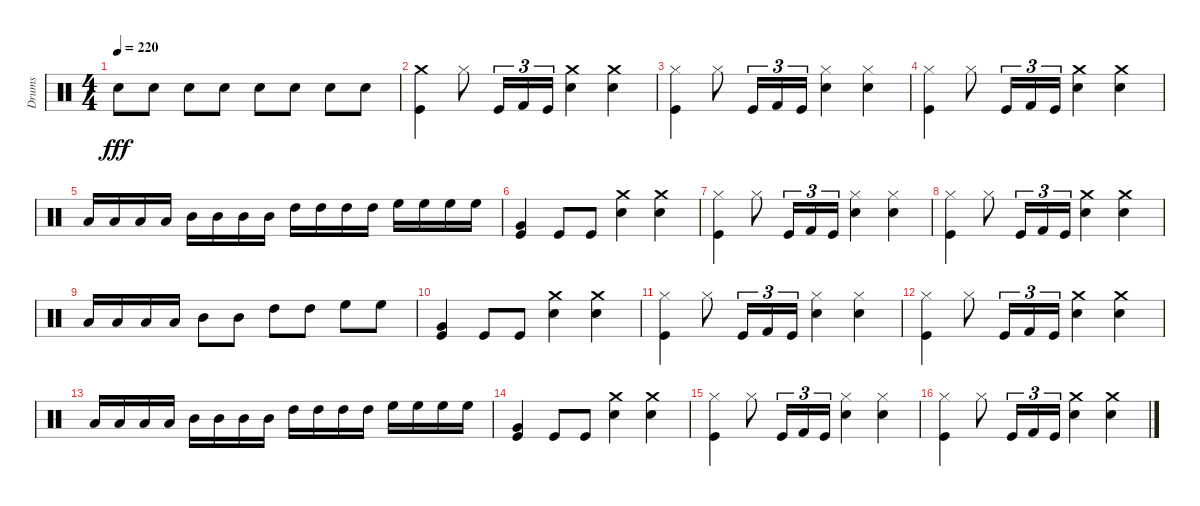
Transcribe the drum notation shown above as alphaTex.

\track ("Drums" "Drums") {instrument percussion}
\staff {score}
\articulation defaults
\ts (4 4)
\tempo 220
\clef neutral
\ks c "Snare (hit) 2".8{dy fff} "Snare (hit) 2".8 "Snare (hit) 2".8 "Snare (hit) 2".8 "Snare (hit) 2".8 "Snare (hit) 2".8 "Snare (hit) 2".8 "Snare (hit) 2".8
|
("Crash medium (hit)" "Kick (hit)").4 "Hi-Hat (closed)".8 "Kick (hit)".16{tu (3 2)} "Kick (hit) 2".16{tu (3 2)} "Kick (hit)".16{tu (3 2)} ("Crash medium (hit)" "Snare (hit) 2").4 ("Crash medium (hit)" "Snare (hit) 2").4 |
("Kick (hit)" "Hi-Hat (closed)").4 "Hi-Hat (closed)".8 "Kick (hit)".16{tu (3 2)} "Kick (hit) 2".16{tu (3 2)} "Kick (hit)".16{tu (3 2)} ("Snare (hit) 2" "Hi-Hat (closed)").4 ("Snare (hit) 2" "Hi-Hat (closed)").4 |
("Kick (hit)" "Hi-Hat (closed)").4 "Hi-Hat (closed)".8 "Kick (hit)".16{tu (3 2)} "Kick (hit) 2".16{tu (3 2)} "Kick (hit)".16{tu (3 2)} ("Crash medium (hit)" "Snare (hit) 2").4 ("Crash medium (hit)" "Snare (hit) 2").4 |
"Low Tom (hit)".16 "Low Tom (hit)".16 "Low Tom (hit)".16 "Low Tom (hit)".16 "Mid Tom (hit)".16 "Mid Tom (hit)".16 "Mid Tom (hit)".16 "Mid Tom (hit)".16 "High Tom (hit)".16 "High Tom (hit)".16 "High Tom (hit)".16 "High Tom (hit)".16 "High Floor Tom (hit)".16 "High Floor Tom (hit)".16 "High Floor Tom (hit)".16 "High Floor Tom (hit)".16 |
("Kick (hit)" "Very Low Tom (hit)").4 "Kick (hit)".8 "Kick (hit)".8 ("Crash medium (hit)" "Snare (hit) 2").4 ("Snare (hit) 2" "Crash medium (hit)").4 |
("Kick (hit)" "Hi-Hat (closed)").4 "Hi-Hat (closed)".8 "Kick (hit)".16{tu (3 2)} "Kick (hit) 2".16{tu (3 2)} "Kick (hit)".16{tu (3 2)} ("Snare (hit) 2" "Hi-Hat (closed)").4 ("Snare (hit) 2" "Hi-Hat (closed)").4 |
("Kick (hit)" "Hi-Hat (closed)").4 "Hi-Hat (closed)".8 "Kick (hit)".16{tu (3 2)} "Kick (hit) 2".16{tu (3 2)} "Kick (hit)".16{tu (3 2)} ("Crash medium (hit)" "Snare (hit) 2").4 ("Crash medium (hit)" "Snare (hit) 2").4 |
"Low Tom (hit)".16 "Low Tom (hit)".16 "Low Tom (hit)".16 "Low Tom (hit)".16 "Mid Tom (hit)".8 "Mid Tom (hit)".8 "High Tom (hit)".8 "High Tom (hit)".8 "High Floor Tom (hit)".8 "High Floor Tom (hit)".8 |
("Kick (hit)" "Very Low Tom (hit)").4 "Kick (hit)".8 "Kick (hit)".8 ("Crash medium (hit)" "Snare (hit) 2").4 ("Snare (hit) 2" "Crash medium (hit)").4 |
("Hi-Hat (closed)" "Kick (hit)").4 "Hi-Hat (closed)".8 "Kick (hit)".16{tu (3 2)} "Kick (hit) 2".16{tu (3 2)} "Kick (hit)".16{tu (3 2)} ("Snare (hit) 2" "Hi-Hat (closed)").4 ("Snare (hit) 2" "Hi-Hat (closed)").4 |
("Hi-Hat (closed)" "Kick (hit)").4 "Hi-Hat (closed)".8 "Kick (hit)".16{tu (3 2)} "Kick (hit) 2".16{tu (3 2)} "Kick (hit)".16{tu (3 2)} ("Crash medium (hit)" "Snare (hit) 2").4 ("Crash medium (hit)" "Snare (hit) 2").4 |
"Low Tom (hit)".16 "Low Tom (hit)".16 "Low Tom (hit)".16 "Low Tom (hit)".16 "Mid Tom (hit)".16 "Mid Tom (hit)".16 "Mid Tom (hit)".16 "Mid Tom (hit)".16 "High Tom (hit)".16 "High Tom (hit)".16 "High Tom (hit)".16 "High Tom (hit)".16 "High Floor Tom (hit)".16 "High Floor Tom (hit)".16 "High Floor Tom (hit)".16 "High Floor Tom (hit)".16 |
("Kick (hit)" "Very Low Tom (hit)").4 "Kick (hit)".8 "Kick (hit)".8 ("Crash medium (hit)" "Snare (hit) 2").4 ("Crash medium (hit)" "Snare (hit) 2").4 |
("Kick (hit)" "Hi-Hat (closed)").4 "Hi-Hat (closed)".8 "Kick (hit)".16{tu (3 2)} "Kick (hit) 2".16{tu (3 2)} "Kick (hit)".16{tu (3 2)} ("Hi-Hat (closed)" "Snare (hit) 2").4 ("Snare (hit) 2" "Hi-Hat (closed)").4 |
("Kick (hit)" "Hi-Hat (closed)").4 "Hi-Hat (closed)".8 "Kick (hit)".16{tu (3 2)} "Kick (hit) 2".16{tu (3 2)} "Kick (hit)".16{tu (3 2)} ("Crash medium (hit)" "Snare (hit) 2").4 ("Crash medium (hit)" "Snare (hit) 2").4
